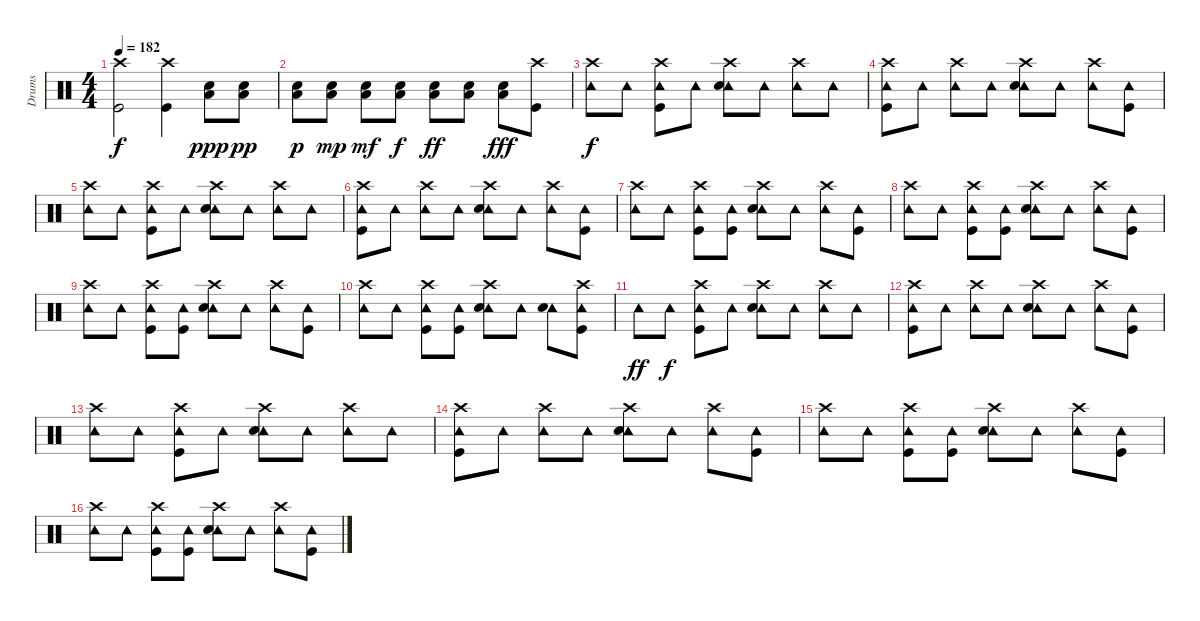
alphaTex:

\track ("Drums" "Drums") {instrument percussion}
\staff {score}
\articulation defaults
\ts (4 4)
\tempo 182
\clef neutral
\ks c
("Crash high (hit)" "Kick (hit)").2{dy f} ("Kick (hit)" "Crash high (hit)").4 ("Low Floor Tom (hit)" "Electric Snare (hit)").8{dy ppp} ("Electric Snare (hit)" "Low Floor Tom (hit)").8{dy pp} |
("Low Floor Tom (hit)" "Electric Snare (hit)").8{dy p} ("Low Floor Tom (hit)" "Electric Snare (hit)").8{dy mp} ("Low Floor Tom (hit)" "Electric Snare (hit)").8{dy mf} ("Low Floor Tom (hit)" "Electric Snare (hit)").8{dy f} ("Low Floor Tom (hit)" "Electric Snare (hit)").8{dy ff} ("Low Floor Tom (hit)" "Electric Snare (hit)").8 ("Low Floor Tom (hit)" "Electric Snare (hit)").8{dy fff} ("Crash high (hit)" "Kick (hit)").8 |
("Tambourine (hit)" "Crash high (hit)").8{dy f} "Tambourine (hit)".8 ("Tambourine (hit)" "Crash high (hit)" "Kick (hit)").8 "Tambourine (hit)".8 ("Tambourine (hit)" "Crash high (hit)" "Electric Snare (hit)").8 "Tambourine (hit)".8 ("Tambourine (hit)" "Crash high (hit)").8 "Tambourine (hit)".8 |
("Tambourine (hit)" "Kick (hit)" "Crash high (hit)").8 "Tambourine (hit)".8 ("Tambourine (hit)" "Crash high (hit)").8 "Tambourine (hit)".8 ("Tambourine (hit)" "Crash high (hit)" "Electric Snare (hit)").8 "Tambourine (hit)".8 ("Tambourine (hit)" "Crash high (hit)").8 ("Tambourine (hit)" "Kick (hit)").8 |
("Tambourine (hit)" "Crash high (hit)").8 "Tambourine (hit)".8 ("Tambourine (hit)" "Crash high (hit)" "Kick (hit)").8 "Tambourine (hit)".8 ("Tambourine (hit)" "Crash high (hit)" "Electric Snare (hit)").8 "Tambourine (hit)".8 ("Tambourine (hit)" "Crash high (hit)").8 "Tambourine (hit)".8 |
("Tambourine (hit)" "Kick (hit)" "Crash high (hit)").8 "Tambourine (hit)".8 ("Tambourine (hit)" "Crash high (hit)").8 "Tambourine (hit)".8 ("Tambourine (hit)" "Crash high (hit)" "Electric Snare (hit)").8 "Tambourine (hit)".8 ("Tambourine (hit)" "Crash high (hit)").8 ("Tambourine (hit)" "Kick (hit)").8 |
("Tambourine (hit)" "Crash high (hit)").8 "Tambourine (hit)".8 ("Tambourine (hit)" "Crash high (hit)" "Kick (hit)").8 ("Tambourine (hit)" "Kick (hit)").8 ("Tambourine (hit)" "Crash high (hit)" "Electric Snare (hit)").8 "Tambourine (hit)".8 ("Tambourine (hit)" "Crash high (hit)").8 ("Tambourine (hit)" "Kick (hit)").8 |
("Tambourine (hit)" "Crash high (hit)").8 "Tambourine (hit)".8 ("Tambourine (hit)" "Crash high (hit)" "Kick (hit)").8 ("Tambourine (hit)" "Kick (hit)").8 ("Tambourine (hit)" "Crash high (hit)" "Electric Snare (hit)").8 "Tambourine (hit)".8 ("Tambourine (hit)" "Crash high (hit)").8 ("Tambourine (hit)" "Kick (hit)").8 |
("Tambourine (hit)" "Crash high (hit)").8 "Tambourine (hit)".8 ("Tambourine (hit)" "Crash high (hit)" "Kick (hit)").8 ("Tambourine (hit)" "Kick (hit)").8 ("Tambourine (hit)" "Crash high (hit)" "Electric Snare (hit)").8 "Tambourine (hit)".8 ("Tambourine (hit)" "Crash high (hit)").8 ("Tambourine (hit)" "Kick (hit)").8 |
("Tambourine (hit)" "Crash high (hit)").8 "Tambourine (hit)".8 ("Tambourine (hit)" "Crash high (hit)" "Kick (hit)").8 ("Tambourine (hit)" "Kick (hit)").8 ("Tambourine (hit)" "Crash high (hit)" "Electric Snare (hit)").8 "Tambourine (hit)".8 ("Tambourine (hit)" "Electric Snare (hit)").8 ("Tambourine (hit)" "Crash high (hit)" "Kick (hit)").8 |
"Tambourine (hit)".8{dy ff} "Tambourine (hit)".8{dy f} ("Tambourine (hit)" "Crash high (hit)" "Kick (hit)").8 "Tambourine (hit)".8 ("Tambourine (hit)" "Crash high (hit)" "Electric Snare (hit)").8 "Tambourine (hit)".8 ("Tambourine (hit)" "Crash high (hit)").8 "Tambourine (hit)".8 |
("Tambourine (hit)" "Kick (hit)" "Crash high (hit)").8 "Tambourine (hit)".8 ("Tambourine (hit)" "Crash high (hit)").8 "Tambourine (hit)".8 ("Tambourine (hit)" "Crash high (hit)" "Electric Snare (hit)").8 "Tambourine (hit)".8 ("Tambourine (hit)" "Crash high (hit)").8 ("Tambourine (hit)" "Kick (hit)").8 |
("Tambourine (hit)" "Crash high (hit)").8 "Tambourine (hit)".8 ("Tambourine (hit)" "Crash high (hit)" "Kick (hit)").8 "Tambourine (hit)".8 ("Tambourine (hit)" "Crash high (hit)" "Electric Snare (hit)").8 "Tambourine (hit)".8 ("Tambourine (hit)" "Crash high (hit)").8 "Tambourine (hit)".8 |
("Tambourine (hit)" "Kick (hit)" "Crash high (hit)").8 "Tambourine (hit)".8 ("Tambourine (hit)" "Crash high (hit)").8 "Tambourine (hit)".8 ("Tambourine (hit)" "Crash high (hit)" "Electric Snare (hit)").8 "Tambourine (hit)".8 ("Tambourine (hit)" "Crash high (hit)").8 ("Tambourine (hit)" "Kick (hit)").8 |
("Tambourine (hit)" "Crash high (hit)").8 "Tambourine (hit)".8 ("Tambourine (hit)" "Crash high (hit)" "Kick (hit)").8 ("Tambourine (hit)" "Kick (hit)").8 ("Tambourine (hit)" "Crash high (hit)" "Electric Snare (hit)").8 "Tambourine (hit)".8 ("Tambourine (hit)" "Crash high (hit)").8 ("Tambourine (hit)" "Kick (hit)").8 |
("Tambourine (hit)" "Crash high (hit)").8 "Tambourine (hit)".8 ("Tambourine (hit)" "Crash high (hit)" "Kick (hit)").8 ("Tambourine (hit)" "Kick (hit)").8 ("Tambourine (hit)" "Crash high (hit)" "Electric Snare (hit)").8 "Tambourine (hit)".8 ("Tambourine (hit)" "Crash high (hit)").8 ("Tambourine (hit)" "Kick (hit)").8
